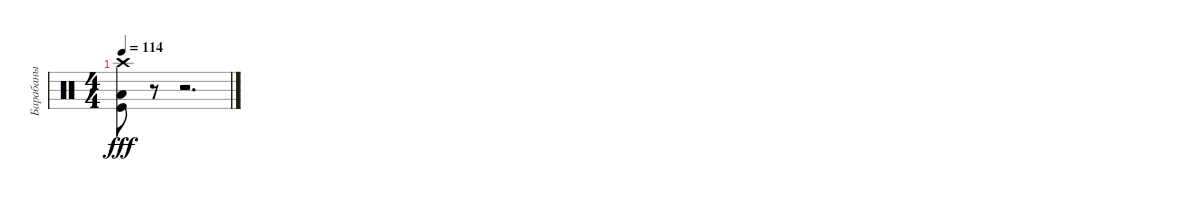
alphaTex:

\track ("Барабаны" "Барабаны") {instrument percussion}
\staff {score}
\articulation defaults
\ts (4 4)
\tempo 114
\clef neutral
\ks c
("Low Floor Tom (hit)" "Kick (hit)" "Crash high (hit)").8{dy fff} r.8 r.2{d}
